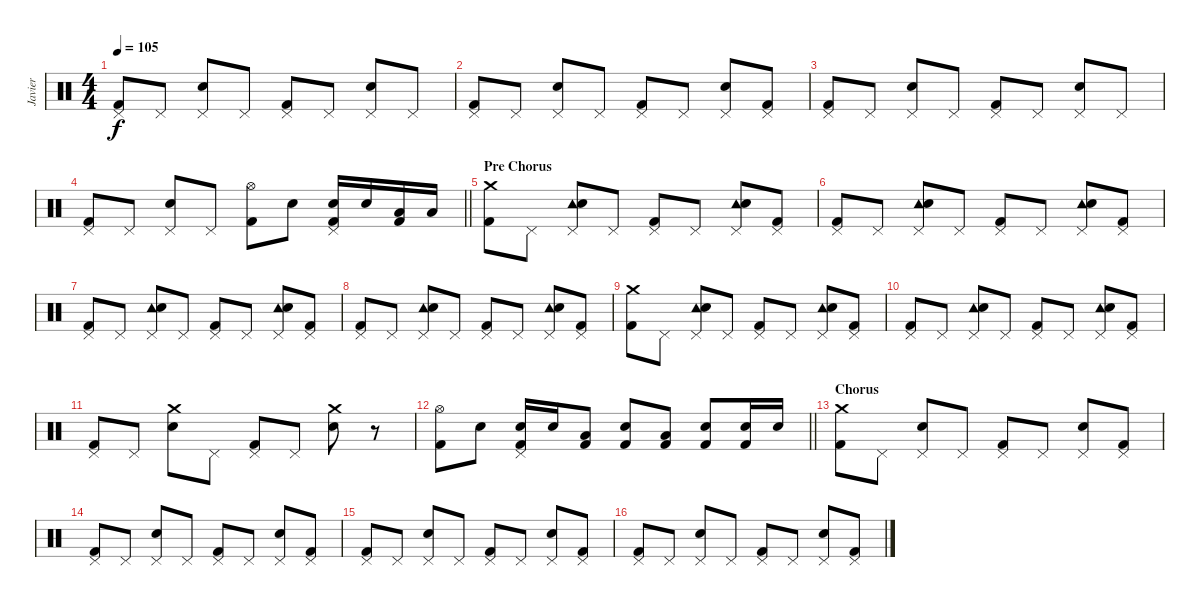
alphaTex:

\track ("Javier" "Javier") {instrument percussion}
\staff {score}
\articulation defaults
\ts (4 4)
\tempo 105
\clef neutral
\ks c
("Pedal Hi-Hat (hit)" "Kick (hit) 2").8{dy f} "Pedal Hi-Hat (hit)".8 ("Pedal Hi-Hat (hit)" "Snare (hit) 2").8 "Pedal Hi-Hat (hit)".8 ("Pedal Hi-Hat (hit)" "Kick (hit) 2").8 "Pedal Hi-Hat (hit)".8 ("Pedal Hi-Hat (hit)" "Snare (hit) 2").8 "Pedal Hi-Hat (hit)".8 |
("Pedal Hi-Hat (hit)" "Kick (hit) 2").8 "Pedal Hi-Hat (hit)".8 ("Pedal Hi-Hat (hit)" "Snare (hit) 2").8 "Pedal Hi-Hat (hit)".8 ("Pedal Hi-Hat (hit)" "Kick (hit) 2").8 "Pedal Hi-Hat (hit)".8 ("Pedal Hi-Hat (hit)" "Snare (hit) 2").8 ("Pedal Hi-Hat (hit)" "Kick (hit) 2").8 |
("Pedal Hi-Hat (hit)" "Kick (hit) 2").8 "Pedal Hi-Hat (hit)".8 ("Pedal Hi-Hat (hit)" "Snare (hit) 2").8 "Pedal Hi-Hat (hit)".8 ("Pedal Hi-Hat (hit)" "Kick (hit) 2").8 "Pedal Hi-Hat (hit)".8 ("Pedal Hi-Hat (hit)" "Snare (hit) 2").8 "Pedal Hi-Hat (hit)".8 |
\barLineRight lightlight
("Pedal Hi-Hat (hit)" "Kick (hit) 2").8 "Pedal Hi-Hat (hit)".8 ("Pedal Hi-Hat (hit)" "Snare (hit) 2").8 "Pedal Hi-Hat (hit)".8 ("Hi-Hat (open)" "Kick (hit) 2").8 "Snare (hit) 2".8 ("Pedal Hi-Hat (hit)" "Snare (hit) 2" "Kick (hit) 2").16 "Snare (hit) 2".16 ("Low Tom (hit)" "Kick (hit) 2").16 "Low Tom (hit)".16 |
\section ("" "Pre Chorus")
("Crash medium (hit)" "Kick (hit) 2").8 "Pedal Hi-Hat (hit)".8 ("Pedal Hi-Hat (hit)" "Tambourine (hit)" "Snare (hit) 2").8 "Pedal Hi-Hat (hit)".8 ("Pedal Hi-Hat (hit)" "Kick (hit) 2").8 "Pedal Hi-Hat (hit)".8 ("Pedal Hi-Hat (hit)" "Tambourine (hit)" "Snare (hit) 2").8 ("Pedal Hi-Hat (hit)" "Kick (hit) 2").8 |
("Pedal Hi-Hat (hit)" "Kick (hit) 2").8 "Pedal Hi-Hat (hit)".8 ("Pedal Hi-Hat (hit)" "Tambourine (hit)" "Snare (hit) 2").8 "Pedal Hi-Hat (hit)".8 ("Pedal Hi-Hat (hit)" "Kick (hit) 2").8 "Pedal Hi-Hat (hit)".8 ("Pedal Hi-Hat (hit)" "Tambourine (hit)" "Snare (hit) 2").8 ("Pedal Hi-Hat (hit)" "Kick (hit) 2").8 |
("Pedal Hi-Hat (hit)" "Kick (hit) 2").8 "Pedal Hi-Hat (hit)".8 ("Pedal Hi-Hat (hit)" "Tambourine (hit)" "Snare (hit) 2").8 "Pedal Hi-Hat (hit)".8 ("Pedal Hi-Hat (hit)" "Kick (hit) 2").8 "Pedal Hi-Hat (hit)".8 ("Pedal Hi-Hat (hit)" "Tambourine (hit)" "Snare (hit) 2").8 ("Pedal Hi-Hat (hit)" "Kick (hit) 2").8 |
("Pedal Hi-Hat (hit)" "Kick (hit) 2").8 "Pedal Hi-Hat (hit)".8 ("Pedal Hi-Hat (hit)" "Tambourine (hit)" "Snare (hit) 2").8 "Pedal Hi-Hat (hit)".8 ("Pedal Hi-Hat (hit)" "Kick (hit) 2").8 "Pedal Hi-Hat (hit)".8 ("Pedal Hi-Hat (hit)" "Tambourine (hit)" "Snare (hit) 2").8 ("Pedal Hi-Hat (hit)" "Kick (hit) 2").8 |
("Crash medium (hit)" "Kick (hit) 2").8 "Pedal Hi-Hat (hit)".8 ("Pedal Hi-Hat (hit)" "Tambourine (hit)" "Snare (hit) 2").8 "Pedal Hi-Hat (hit)".8 ("Pedal Hi-Hat (hit)" "Kick (hit) 2").8 "Pedal Hi-Hat (hit)".8 ("Pedal Hi-Hat (hit)" "Tambourine (hit)" "Snare (hit) 2").8 ("Pedal Hi-Hat (hit)" "Kick (hit) 2").8 |
("Pedal Hi-Hat (hit)" "Kick (hit) 2").8 "Pedal Hi-Hat (hit)".8 ("Pedal Hi-Hat (hit)" "Tambourine (hit)" "Snare (hit) 2").8 "Pedal Hi-Hat (hit)".8 ("Pedal Hi-Hat (hit)" "Kick (hit) 2").8 "Pedal Hi-Hat (hit)".8 ("Pedal Hi-Hat (hit)" "Tambourine (hit)" "Snare (hit) 2").8 ("Pedal Hi-Hat (hit)" "Kick (hit) 2").8 |
("Pedal Hi-Hat (hit)" "Kick (hit) 2").8 "Pedal Hi-Hat (hit)".8 ("Crash medium (hit)" "Snare (hit) 2").8 "Pedal Hi-Hat (hit)".8 ("Pedal Hi-Hat (hit)" "Kick (hit) 2").8 "Pedal Hi-Hat (hit)".8 ("Crash medium (hit)" "Snare (hit) 2").8 r.8 |
\barLineRight lightlight
("Hi-Hat (open)" "Kick (hit) 2").8 "Snare (hit) 2".8 ("Pedal Hi-Hat (hit)" "Snare (hit) 2" "Kick (hit) 2").16 "Snare (hit) 2".16 ("Low Tom (hit)" "Kick (hit) 2").8 ("Snare (hit) 2" "Kick (hit) 2").8 ("Low Tom (hit)" "Kick (hit) 2").8 ("Snare (hit) 2" "Kick (hit) 2").8 ("Snare (hit) 2" "Kick (hit) 2").16 "Snare (hit) 2".16 |
\section ("" "Chorus")
("Crash medium (hit)" "Kick (hit) 2").8 "Pedal Hi-Hat (hit)".8 ("Pedal Hi-Hat (hit)" "Snare (hit) 2").8 "Pedal Hi-Hat (hit)".8 ("Pedal Hi-Hat (hit)" "Kick (hit) 2").8 "Pedal Hi-Hat (hit)".8 ("Pedal Hi-Hat (hit)" "Snare (hit) 2").8 ("Pedal Hi-Hat (hit)" "Kick (hit) 2").8 |
("Pedal Hi-Hat (hit)" "Kick (hit) 2").8 "Pedal Hi-Hat (hit)".8 ("Pedal Hi-Hat (hit)" "Snare (hit) 2").8 "Pedal Hi-Hat (hit)".8 ("Pedal Hi-Hat (hit)" "Kick (hit) 2").8 "Pedal Hi-Hat (hit)".8 ("Pedal Hi-Hat (hit)" "Snare (hit) 2").8 ("Pedal Hi-Hat (hit)" "Kick (hit) 2").8 |
("Pedal Hi-Hat (hit)" "Kick (hit) 2").8 "Pedal Hi-Hat (hit)".8 ("Pedal Hi-Hat (hit)" "Snare (hit) 2").8 "Pedal Hi-Hat (hit)".8 ("Pedal Hi-Hat (hit)" "Kick (hit) 2").8 "Pedal Hi-Hat (hit)".8 ("Pedal Hi-Hat (hit)" "Snare (hit) 2").8 ("Pedal Hi-Hat (hit)" "Kick (hit) 2").8 |
("Pedal Hi-Hat (hit)" "Kick (hit) 2").8 "Pedal Hi-Hat (hit)".8 ("Pedal Hi-Hat (hit)" "Snare (hit) 2").8 "Pedal Hi-Hat (hit)".8 ("Pedal Hi-Hat (hit)" "Kick (hit) 2").8 "Pedal Hi-Hat (hit)".8 ("Pedal Hi-Hat (hit)" "Snare (hit) 2").8 ("Pedal Hi-Hat (hit)" "Kick (hit) 2").8
